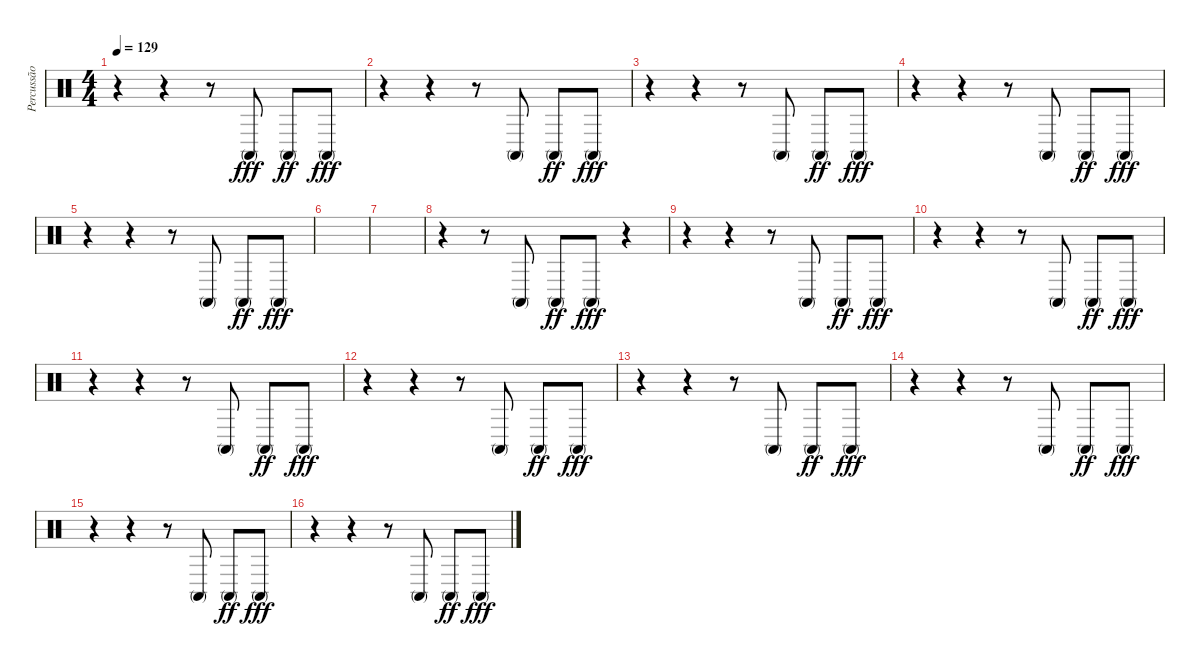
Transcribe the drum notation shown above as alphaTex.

\track ("Percussão" "Percussão") {instrument percussion}
\staff {score}
\articulation defaults
\ts (4 4)
\tempo 129
\clef neutral
\ks c
r.4{dy fff} r.4 r.8 "Conga high (mute)".8 "Conga high (mute)".8{dy ff} "Conga high (mute)".8{dy fff} |
r.4 r.4 r.8 "Conga high (mute)".8 "Conga high (mute)".8{dy ff} "Conga high (mute)".8{dy fff} |
r.4 r.4 r.8 "Conga high (mute)".8 "Conga high (mute)".8{dy ff} "Conga high (mute)".8{dy fff} |
r.4 r.4 r.8 "Conga high (mute)".8 "Conga high (mute)".8{dy ff} "Conga high (mute)".8{dy fff} |
r.4 r.4 r.8 "Conga high (mute)".8 "Conga high (mute)".8{dy ff} "Conga high (mute)".8{dy fff} |
|
|
r.4{volume 16} r.8 "Conga high (mute)".8 "Conga high (mute)".8{dy ff} "Conga high (mute)".8{dy fff} r.4 |
r.4 r.4 r.8 "Conga high (mute)".8 "Conga high (mute)".8{dy ff} "Conga high (mute)".8{dy fff} |
r.4 r.4 r.8 "Conga high (mute)".8 "Conga high (mute)".8{dy ff} "Conga high (mute)".8{dy fff} |
r.4 r.4 r.8 "Conga high (mute)".8 "Conga high (mute)".8{dy ff} "Conga high (mute)".8{dy fff} |
r.4 r.4 r.8 "Conga high (mute)".8 "Conga high (mute)".8{dy ff} "Conga high (mute)".8{dy fff} |
r.4 r.4 r.8 "Conga high (mute)".8 "Conga high (mute)".8{dy ff} "Conga high (mute)".8{dy fff} |
r.4 r.4 r.8 "Conga high (mute)".8 "Conga high (mute)".8{dy ff} "Conga high (mute)".8{dy fff} |
r.4 r.4 r.8 "Conga high (mute)".8 "Conga high (mute)".8{dy ff} "Conga high (mute)".8{dy fff} |
r.4 r.4 r.8 "Conga high (mute)".8 "Conga high (mute)".8{dy ff} "Conga high (mute)".8{dy fff}
